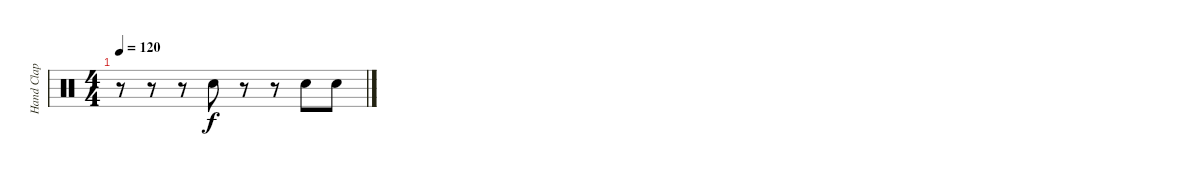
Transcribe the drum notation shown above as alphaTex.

\track ("Hand Clap" "Hand Clap") {instrument percussion}
\staff {score}
\articulation defaults
\ts (4 4)
\tempo 120
\clef neutral
\ks c
r.8{dy f} r.8 r.8 "Hand Clap (hit)".8 r.8 r.8 "Hand Clap (hit)".8 "Hand Clap (hit)".8
